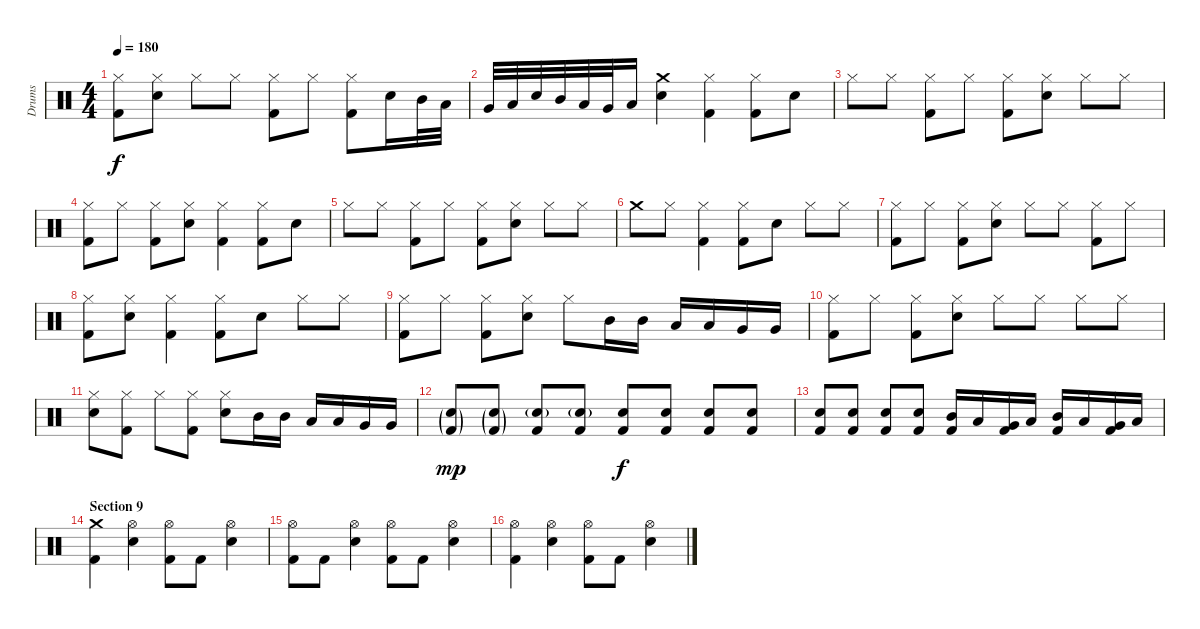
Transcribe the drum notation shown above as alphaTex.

\track ("Drums" "Drums") {instrument percussion}
\staff {score}
\articulation defaults
\ts (4 4)
\tempo 180
\clef neutral
\ks c
("Hi-Hat (closed)" "Kick (hit) 2").8{dy f} ("Hi-Hat (closed)" "Electric Snare (hit)").8 "Hi-Hat (closed)".8 "Hi-Hat (closed)".8 ("Hi-Hat (closed)" "Kick (hit) 2").8 "Hi-Hat (closed)".8 ("Hi-Hat (closed)" "Kick (hit) 2").8 "Electric Snare (hit)".16 "Mid Tom (hit)".32 "Low Tom (hit)".32 |
"Very Low Tom (hit)".32 "Low Floor Tom (hit)".32 "Electric Snare (hit)".32 "Mid Tom (hit)".32 "Low Tom (hit)".32 "Very Low Tom (hit)".32 "Low Floor Tom (hit)".16 ("Crash medium (hit)" "Electric Snare (hit)").4 ("Hi-Hat (closed)" "Kick (hit) 2").4 ("Hi-Hat (closed)" "Kick (hit) 2").8 "Electric Snare (hit)".8 |
"Hi-Hat (closed)".8 "Hi-Hat (closed)".8 ("Hi-Hat (closed)" "Kick (hit) 2").8 "Hi-Hat (closed)".8 ("Hi-Hat (closed)" "Kick (hit) 2").8 ("Hi-Hat (closed)" "Electric Snare (hit)").8 "Hi-Hat (closed)".8 "Hi-Hat (closed)".8 |
("Hi-Hat (closed)" "Kick (hit) 2").8 "Hi-Hat (closed)".8 ("Hi-Hat (closed)" "Kick (hit) 2").8 ("Hi-Hat (closed)" "Electric Snare (hit)").8 ("Hi-Hat (closed)" "Kick (hit) 2").4 ("Hi-Hat (closed)" "Kick (hit) 2").8 "Electric Snare (hit)".8 |
"Hi-Hat (closed)".8 "Hi-Hat (closed)".8 ("Hi-Hat (closed)" "Kick (hit) 2").8 "Hi-Hat (closed)".8 ("Hi-Hat (closed)" "Kick (hit) 2").8 ("Hi-Hat (closed)" "Electric Snare (hit)").8 "Hi-Hat (closed)".8 "Hi-Hat (closed)".8 |
"Crash medium (hit)".8 "Hi-Hat (closed)".8 ("Hi-Hat (closed)" "Kick (hit) 2").4 ("Hi-Hat (closed)" "Kick (hit) 2").8 "Electric Snare (hit)".8 "Hi-Hat (closed)".8 "Hi-Hat (closed)".8 |
("Hi-Hat (closed)" "Kick (hit) 2").8 "Hi-Hat (closed)".8 ("Hi-Hat (closed)" "Kick (hit) 2").8 ("Hi-Hat (closed)" "Electric Snare (hit)").8 "Hi-Hat (closed)".8 "Hi-Hat (closed)".8 ("Hi-Hat (closed)" "Kick (hit) 2").8 "Hi-Hat (closed)".8 |
("Hi-Hat (closed)" "Kick (hit) 2").8 ("Hi-Hat (closed)" "Electric Snare (hit)").8 ("Hi-Hat (closed)" "Kick (hit) 2").4 ("Hi-Hat (closed)" "Kick (hit) 2").8 "Electric Snare (hit)".8 "Hi-Hat (closed)".8 "Hi-Hat (closed)".8 |
("Hi-Hat (closed)" "Kick (hit) 2").8 "Hi-Hat (closed)".8 ("Hi-Hat (closed)" "Kick (hit) 2").8 ("Hi-Hat (closed)" "Electric Snare (hit)").8 "Hi-Hat (closed)".8 "Mid Tom (hit)".16 "Mid Tom (hit)".16 "Low Tom (hit)".16 "Low Tom (hit)".16 "Very Low Tom (hit)".16 "Very Low Tom (hit)".16 |
("Hi-Hat (closed)" "Kick (hit) 2").8 "Hi-Hat (closed)".8 ("Hi-Hat (closed)" "Kick (hit) 2").8 ("Hi-Hat (closed)" "Electric Snare (hit)").8 "Hi-Hat (closed)".8 "Hi-Hat (closed)".8 "Hi-Hat (closed)".8 "Hi-Hat (closed)".8 |
("Hi-Hat (closed)" "Electric Snare (hit)").8 ("Hi-Hat (closed)" "Kick (hit) 2").8 "Hi-Hat (closed)".8 ("Hi-Hat (closed)" "Kick (hit) 2").8 ("Hi-Hat (closed)" "Electric Snare (hit)").8 "Mid Tom (hit)".16 "Mid Tom (hit)".16 "Low Tom (hit)".16 "Low Tom (hit)".16 "Very Low Tom (hit)".16 "Very Low Tom (hit)".16 |
("Electric Snare (hit)"{g} "Kick (hit) 2"{g}).8{dy mp} ("Electric Snare (hit)"{g} "Kick (hit) 2"{g}).8 ("Electric Snare (hit)"{g} "Kick (hit) 2").8 ("Electric Snare (hit)"{g} "Kick (hit) 2").8 ("Electric Snare (hit)" "Kick (hit) 2").8{dy f} ("Electric Snare (hit)" "Kick (hit) 2").8 ("Electric Snare (hit)" "Kick (hit) 2").8 ("Electric Snare (hit)" "Kick (hit) 2").8 |
("Electric Snare (hit)" "Kick (hit) 2").8 ("Electric Snare (hit)" "Kick (hit) 2").8 ("Electric Snare (hit)" "Kick (hit) 2").8 ("Electric Snare (hit)" "Kick (hit) 2").8 ("Mid Tom (hit)" "Kick (hit) 2").16 "Low Tom (hit)".16 ("Very Low Tom (hit)" "Kick (hit) 2").16 "Low Tom (hit)".16 ("Mid Tom (hit)" "Kick (hit) 2").16 "Low Tom (hit)".16 ("Very Low Tom (hit)" "Kick (hit) 2").16 "Low Floor Tom (hit)".16 |
\section ("" "Section 9")
("Crash medium (hit)" "Kick (hit) 2").4 ("Hi-Hat (open)" "Electric Snare (hit)").4 ("Hi-Hat (open)" "Kick (hit) 2").8 "Kick (hit) 2".8 ("Hi-Hat (open)" "Electric Snare (hit)").4 |
("Hi-Hat (open)" "Kick (hit) 2").8 "Kick (hit) 2".8 ("Hi-Hat (open)" "Electric Snare (hit)").4 ("Hi-Hat (open)" "Kick (hit) 2").8 "Kick (hit) 2".8 ("Hi-Hat (open)" "Electric Snare (hit)").4 |
("Hi-Hat (open)" "Kick (hit) 2").4 ("Hi-Hat (open)" "Electric Snare (hit)").4 ("Hi-Hat (open)" "Kick (hit) 2").8 "Kick (hit) 2".8 ("Hi-Hat (open)" "Electric Snare (hit)").4
